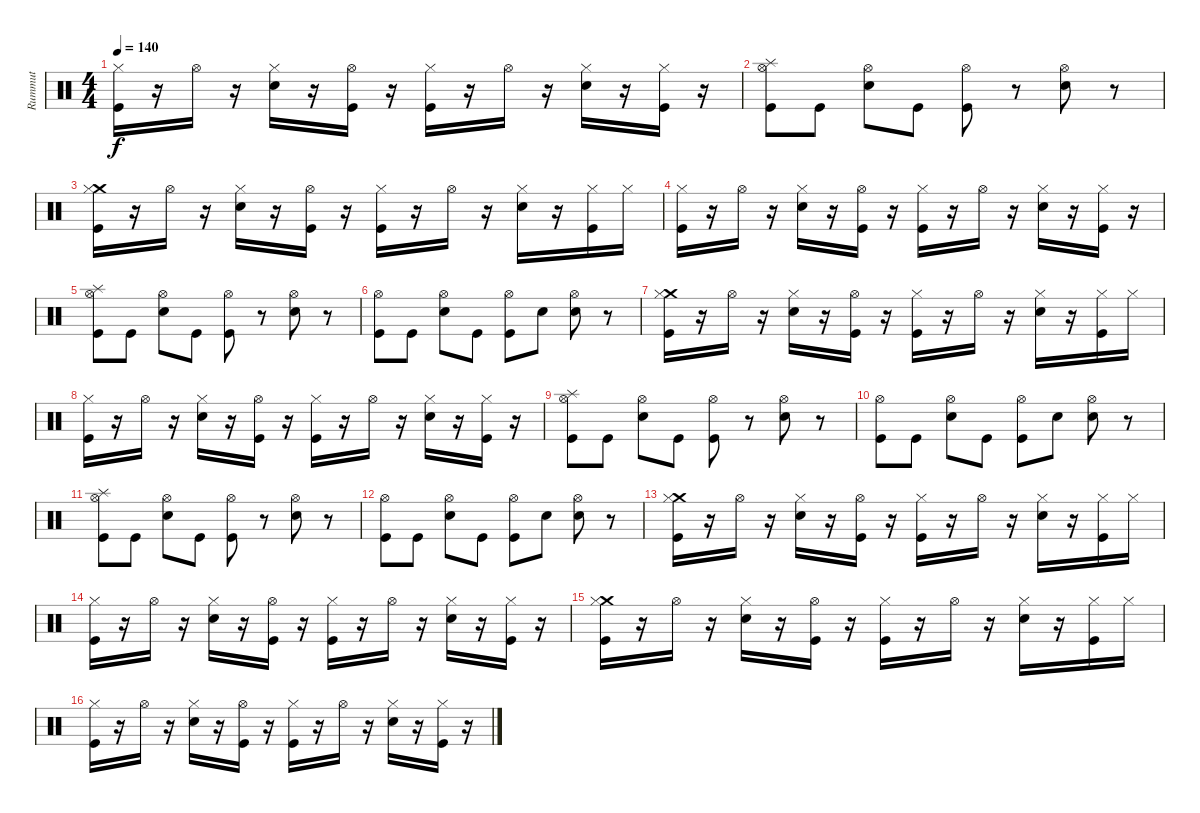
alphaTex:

\track ("Rummut" "Rummut") {instrument percussion}
\staff {score}
\articulation defaults
\ts (4 4)
\tempo 140
\clef neutral
\ks c
("Hi-Hat (closed)" "Kick (hit)").16{dy f} r.16 "Hi-Hat (open)".16 r.16 ("Hi-Hat (closed)" "Snare (hit) 2").16 r.16 ("Hi-Hat (open)" "Kick (hit)").16 r.16 ("Hi-Hat (closed)" "Kick (hit)").16 r.16 "Hi-Hat (open)".16 r.16 ("Hi-Hat (closed)" "Snare (hit) 2").16 r.16 ("Hi-Hat (closed)" "Kick (hit)").16 r.16 |
("Splash (hit)" "Hi-Hat (open)" "Kick (hit)").8 "Kick (hit)".8 ("Hi-Hat (open)" "Snare (hit) 2").8 "Kick (hit)".8 ("Hi-Hat (open)" "Kick (hit)").8 r.8 ("Hi-Hat (open)" "Snare (hit) 2").8 r.8 |
("Crash medium (hit)" "Hi-Hat (closed)" "Kick (hit)").16 r.16 "Hi-Hat (open)".16 r.16 ("Hi-Hat (closed)" "Snare (hit) 2").16 r.16 ("Hi-Hat (open)" "Kick (hit)").16 r.16 ("Hi-Hat (closed)" "Kick (hit)").16 r.16 "Hi-Hat (open)".16 r.16 ("Hi-Hat (closed)" "Snare (hit) 2").16 r.16 ("Hi-Hat (closed)" "Kick (hit)").16 "Hi-Hat (closed)".16 |
("Hi-Hat (closed)" "Kick (hit)").16 r.16 "Hi-Hat (open)".16 r.16 ("Hi-Hat (closed)" "Snare (hit) 2").16 r.16 ("Hi-Hat (open)" "Kick (hit)").16 r.16 ("Hi-Hat (closed)" "Kick (hit)").16 r.16 "Hi-Hat (open)".16 r.16 ("Hi-Hat (closed)" "Snare (hit) 2").16 r.16 ("Hi-Hat (closed)" "Kick (hit)").16 r.16 |
("Splash (hit)" "Hi-Hat (open)" "Kick (hit)").8 "Kick (hit)".8 ("Hi-Hat (open)" "Snare (hit) 2").8 "Kick (hit)".8 ("Hi-Hat (open)" "Kick (hit)").8 r.8 ("Hi-Hat (open)" "Snare (hit) 2").8 r.8 |
("Hi-Hat (open)" "Kick (hit)").8 "Kick (hit)".8 ("Hi-Hat (open)" "Snare (hit) 2").8 "Kick (hit)".8 ("Hi-Hat (open)" "Kick (hit)").8 "Snare (hit) 2".8 ("Hi-Hat (open)" "Snare (hit) 2").8 r.8 |
("Crash medium (hit)" "Hi-Hat (closed)" "Kick (hit)").16 r.16 "Hi-Hat (open)".16 r.16 ("Hi-Hat (closed)" "Snare (hit) 2").16 r.16 ("Hi-Hat (open)" "Kick (hit)").16 r.16 ("Hi-Hat (closed)" "Kick (hit)").16 r.16 "Hi-Hat (open)".16 r.16 ("Hi-Hat (closed)" "Snare (hit) 2").16 r.16 ("Hi-Hat (closed)" "Kick (hit)").16 "Hi-Hat (closed)".16 |
("Hi-Hat (closed)" "Kick (hit)").16 r.16 "Hi-Hat (open)".16 r.16 ("Hi-Hat (closed)" "Snare (hit) 2").16 r.16 ("Hi-Hat (open)" "Kick (hit)").16 r.16 ("Hi-Hat (closed)" "Kick (hit)").16 r.16 "Hi-Hat (open)".16 r.16 ("Hi-Hat (closed)" "Snare (hit) 2").16 r.16 ("Hi-Hat (closed)" "Kick (hit)").16 r.16 |
("Splash (hit)" "Hi-Hat (open)" "Kick (hit)").8 "Kick (hit)".8 ("Hi-Hat (open)" "Snare (hit) 2").8 "Kick (hit)".8 ("Hi-Hat (open)" "Kick (hit)").8 r.8 ("Hi-Hat (open)" "Snare (hit) 2").8 r.8 |
("Hi-Hat (open)" "Kick (hit)").8 "Kick (hit)".8 ("Hi-Hat (open)" "Snare (hit) 2").8 "Kick (hit)".8 ("Hi-Hat (open)" "Kick (hit)").8 "Snare (hit) 2".8 ("Hi-Hat (open)" "Snare (hit) 2").8 r.8 |
("Splash (hit)" "Hi-Hat (open)" "Kick (hit)").8 "Kick (hit)".8 ("Hi-Hat (open)" "Snare (hit) 2").8 "Kick (hit)".8 ("Hi-Hat (open)" "Kick (hit)").8 r.8 ("Hi-Hat (open)" "Snare (hit) 2").8 r.8 |
("Hi-Hat (open)" "Kick (hit)").8 "Kick (hit)".8 ("Hi-Hat (open)" "Snare (hit) 2").8 "Kick (hit)".8 ("Hi-Hat (open)" "Kick (hit)").8 "Snare (hit) 2".8 ("Hi-Hat (open)" "Snare (hit) 2").8 r.8 |
("Crash medium (hit)" "Hi-Hat (closed)" "Kick (hit)").16 r.16 "Hi-Hat (open)".16 r.16 ("Hi-Hat (closed)" "Snare (hit) 2").16 r.16 ("Hi-Hat (open)" "Kick (hit)").16 r.16 ("Hi-Hat (closed)" "Kick (hit)").16 r.16 "Hi-Hat (open)".16 r.16 ("Hi-Hat (closed)" "Snare (hit) 2").16 r.16 ("Hi-Hat (closed)" "Kick (hit)").16 "Hi-Hat (closed)".16 |
("Hi-Hat (closed)" "Kick (hit)").16 r.16 "Hi-Hat (open)".16 r.16 ("Hi-Hat (closed)" "Snare (hit) 2").16 r.16 ("Hi-Hat (open)" "Kick (hit)").16 r.16 ("Hi-Hat (closed)" "Kick (hit)").16 r.16 "Hi-Hat (open)".16 r.16 ("Hi-Hat (closed)" "Snare (hit) 2").16 r.16 ("Hi-Hat (closed)" "Kick (hit)").16 r.16 |
("Crash medium (hit)" "Hi-Hat (closed)" "Kick (hit)").16 r.16 "Hi-Hat (open)".16 r.16 ("Hi-Hat (closed)" "Snare (hit) 2").16 r.16 ("Hi-Hat (open)" "Kick (hit)").16 r.16 ("Hi-Hat (closed)" "Kick (hit)").16 r.16 "Hi-Hat (open)".16 r.16 ("Hi-Hat (closed)" "Snare (hit) 2").16 r.16 ("Hi-Hat (closed)" "Kick (hit)").16 "Hi-Hat (closed)".16 |
("Hi-Hat (closed)" "Kick (hit)").16 r.16 "Hi-Hat (open)".16 r.16 ("Hi-Hat (closed)" "Snare (hit) 2").16 r.16 ("Hi-Hat (open)" "Kick (hit)").16 r.16 ("Hi-Hat (closed)" "Kick (hit)").16 r.16 "Hi-Hat (open)".16 r.16 ("Hi-Hat (closed)" "Snare (hit) 2").16 r.16 ("Hi-Hat (closed)" "Kick (hit)").16 r.16
